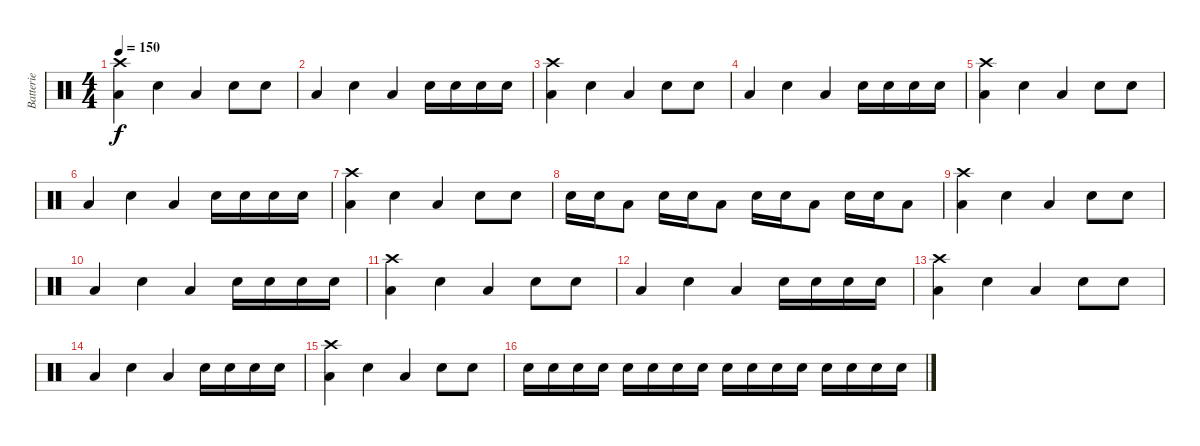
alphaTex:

\track ("Batterie" "Batterie") {instrument percussion}
\staff {score}
\articulation defaults
\ts (4 4)
\tempo 150
\clef neutral
\ks c
("Crash high (hit)" "Low Tom (hit)").4{dy f} "Snare (hit) 2".4 "Low Tom (hit)".4 "Snare (hit) 2".8 "Snare (hit) 2".8 |
"Low Tom (hit)".4 "Snare (hit) 2".4 "Low Tom (hit)".4 "Snare (hit) 2".16 "Snare (hit) 2".16 "Snare (hit) 2".16 "Snare (hit) 2".16 |
("Crash high (hit)" "Low Tom (hit)").4 "Snare (hit) 2".4 "Low Tom (hit)".4 "Snare (hit) 2".8 "Snare (hit) 2".8 |
"Low Tom (hit)".4 "Snare (hit) 2".4 "Low Tom (hit)".4 "Snare (hit) 2".16 "Snare (hit) 2".16 "Snare (hit) 2".16 "Snare (hit) 2".16 |
("Crash high (hit)" "Low Tom (hit)").4 "Snare (hit) 2".4 "Low Tom (hit)".4 "Snare (hit) 2".8 "Snare (hit) 2".8 |
"Low Tom (hit)".4 "Snare (hit) 2".4 "Low Tom (hit)".4 "Snare (hit) 2".16 "Snare (hit) 2".16 "Snare (hit) 2".16 "Snare (hit) 2".16 |
("Crash high (hit)" "Low Tom (hit)").4 "Snare (hit) 2".4 "Low Tom (hit)".4 "Snare (hit) 2".8 "Snare (hit) 2".8 |
"Snare (hit) 2".16 "Snare (hit) 2".16 "Low Tom (hit)".8 "Snare (hit) 2".16 "Snare (hit) 2".16 "Low Tom (hit)".8 "Snare (hit) 2".16 "Snare (hit) 2".16 "Low Tom (hit)".8 "Snare (hit) 2".16 "Snare (hit) 2".16 "Low Tom (hit)".8 |
("Crash high (hit)" "Low Tom (hit)").4 "Snare (hit) 2".4 "Low Tom (hit)".4 "Snare (hit) 2".8 "Snare (hit) 2".8 |
"Low Tom (hit)".4 "Snare (hit) 2".4 "Low Tom (hit)".4 "Snare (hit) 2".16 "Snare (hit) 2".16 "Snare (hit) 2".16 "Snare (hit) 2".16 |
("Crash high (hit)" "Low Tom (hit)").4 "Snare (hit) 2".4 "Low Tom (hit)".4 "Snare (hit) 2".8 "Snare (hit) 2".8 |
"Low Tom (hit)".4 "Snare (hit) 2".4 "Low Tom (hit)".4 "Snare (hit) 2".16 "Snare (hit) 2".16 "Snare (hit) 2".16 "Snare (hit) 2".16 |
("Crash high (hit)" "Low Tom (hit)").4 "Snare (hit) 2".4 "Low Tom (hit)".4 "Snare (hit) 2".8 "Snare (hit) 2".8 |
"Low Tom (hit)".4 "Snare (hit) 2".4 "Low Tom (hit)".4 "Snare (hit) 2".16 "Snare (hit) 2".16 "Snare (hit) 2".16 "Snare (hit) 2".16 |
("Crash high (hit)" "Low Tom (hit)").4 "Snare (hit) 2".4 "Low Tom (hit)".4 "Snare (hit) 2".8 "Snare (hit) 2".8 |
"Snare (hit) 2".16 "Snare (hit) 2".16 "Snare (hit) 2".16 "Snare (hit) 2".16 "Snare (hit) 2".16 "Snare (hit) 2".16 "Snare (hit) 2".16 "Snare (hit) 2".16 "Snare (hit) 2".16 "Snare (hit) 2".16 "Snare (hit) 2".16 "Snare (hit) 2".16 "Snare (hit) 2".16 "Snare (hit) 2".16 "Snare (hit) 2".16 "Snare (hit) 2".16
